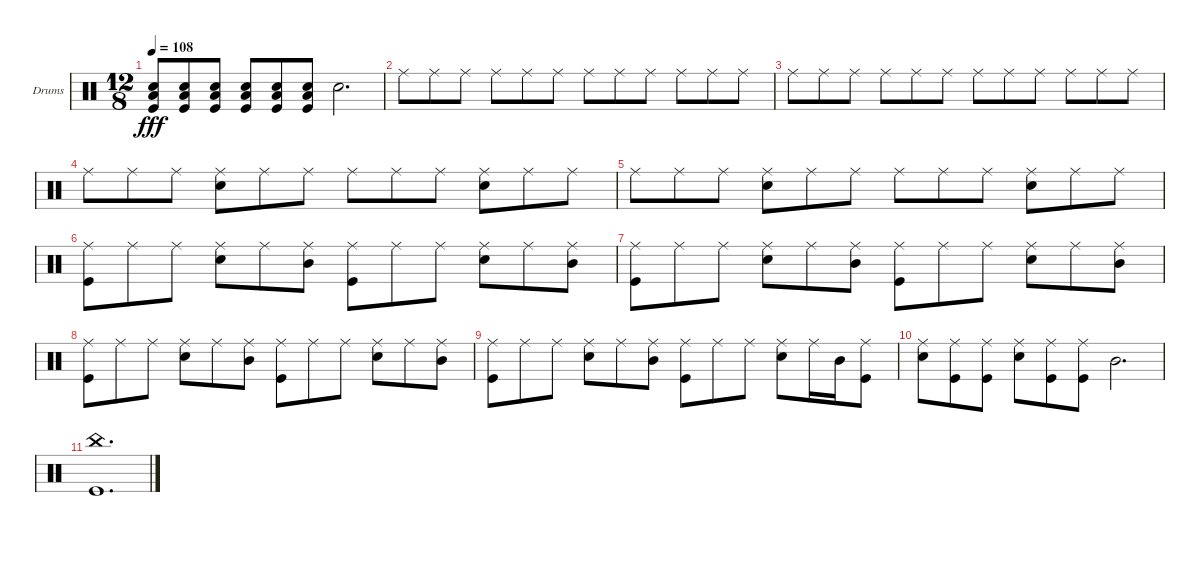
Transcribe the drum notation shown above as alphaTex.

\defaultSystemsLayout 4
\bracketExtendMode groupsimilarinstruments
\firstSystemTrackNameOrientation horizontal
\otherSystemsTrackNameOrientation horizontal
\track ("Drumkit" "Drums") {instrument percussion}
\staff {score}
\articulation defaults
\ts (12 8)
\tempo 108
\clef neutral
\scale
0.333333
\ks c
("Snare (hit) 2" "Low Tom (hit)" "Kick (hit)").8{dy fff} ("Snare (hit) 2" "Low Tom (hit)" "Kick (hit)").8 ("Snare (hit) 2" "Low Tom (hit)" "Kick (hit)").8 ("Snare (hit) 2" "Low Tom (hit)" "Kick (hit)").8 ("Snare (hit) 2" "Low Tom (hit)" "Kick (hit)").8 ("Snare (hit) 2" "Low Tom (hit)" "Kick (hit)").8 "Snare (hit) 2".2{d} |
\scale
0.333333 "Ride (middle)".8 "Ride (middle)".8 "Ride (middle)".8 "Ride (middle)".8 "Ride (middle)".8 "Ride (middle)".8 "Ride (middle)".8 "Ride (middle)".8 "Ride (middle)".8 "Ride (middle)".8 "Ride (middle)".8 "Ride (middle)".8 |
\scale
0.333333 "Ride (middle)".8 "Ride (middle)".8 "Ride (middle)".8 "Ride (middle)".8 "Ride (middle)".8 "Ride (middle)".8 "Ride (middle)".8 "Ride (middle)".8 "Ride (middle)".8 "Ride (middle)".8 "Ride (middle)".8 "Ride (middle)".8 |
\scale
0.333333 "Ride (middle)".8 "Ride (middle)".8 "Ride (middle)".8 ("Ride (middle)" "Snare (hit) 2").8 "Ride (middle)".8 "Ride (middle)".8 "Ride (middle)".8 "Ride (middle)".8 "Ride (middle)".8 ("Ride (middle)" "Snare (hit) 2").8 "Ride (middle)".8 "Ride (middle)".8 |
\scale
0.333333 "Ride (middle)".8 "Ride (middle)".8 "Ride (middle)".8 ("Ride (middle)" "Snare (hit) 2").8 "Ride (middle)".8 "Ride (middle)".8 "Ride (middle)".8 "Ride (middle)".8 "Ride (middle)".8 ("Ride (middle)" "Snare (hit) 2").8 "Ride (middle)".8 "Ride (middle)".8 |
\scale
0.333333 ("Ride (middle)" "Kick (hit)").8 "Ride (middle)".8 "Ride (middle)".8 ("Ride (middle)" "Snare (hit) 2").8 "Ride (middle)".8 ("Ride (middle)" "Mid Tom (hit)").8 ("Ride (middle)" "Kick (hit)").8 "Ride (middle)".8 "Ride (middle)".8 ("Ride (middle)" "Snare (hit) 2").8 "Ride (middle)".8 ("Ride (middle)" "Mid Tom (hit)").8 |
\scale
0.333333 ("Ride (middle)" "Kick (hit)").8 "Ride (middle)".8 "Ride (middle)".8 ("Ride (middle)" "Snare (hit) 2").8 "Ride (middle)".8 ("Ride (middle)" "Mid Tom (hit)").8 ("Ride (middle)" "Kick (hit)").8 "Ride (middle)".8 "Ride (middle)".8 ("Ride (middle)" "Snare (hit) 2").8 "Ride (middle)".8 ("Ride (middle)" "Mid Tom (hit)").8 |
\scale
0.333333 ("Ride (middle)" "Kick (hit)").8 "Ride (middle)".8 "Ride (middle)".8 ("Ride (middle)" "Snare (hit) 2").8 "Ride (middle)".8 ("Ride (middle)" "Mid Tom (hit)").8 ("Ride (middle)" "Kick (hit)").8 "Ride (middle)".8 "Ride (middle)".8 ("Ride (middle)" "Snare (hit) 2").8 "Ride (middle)".8 ("Ride (middle)" "Mid Tom (hit)").8 |
\scale
0.333333 ("Ride (middle)" "Kick (hit)").8 "Ride (middle)".8 "Ride (middle)".8 ("Ride (middle)" "Snare (hit) 2").8 "Ride (middle)".8 ("Ride (middle)" "Mid Tom (hit)").8 ("Ride (middle)" "Kick (hit)").8 "Ride (middle)".8 "Ride (middle)".8 ("Ride (middle)" "Snare (hit) 2").8 "Ride (middle)".16 "Mid Tom (hit)".16 ("Ride (middle)" "Kick (hit)").8 |
("Ride (middle)" "Snare (hit) 2").8 ("Ride (middle)" "Kick (hit)").8 ("Ride (middle)" "Kick (hit)").8 ("Ride (middle)" "Snare (hit) 2").8 ("Ride (middle)" "Kick (hit)").8 ("Ride (middle)" "Kick (hit)").8 "Mid Tom (hit)".2{d} |
("China (hit)" "Kick (hit)").1{d}
